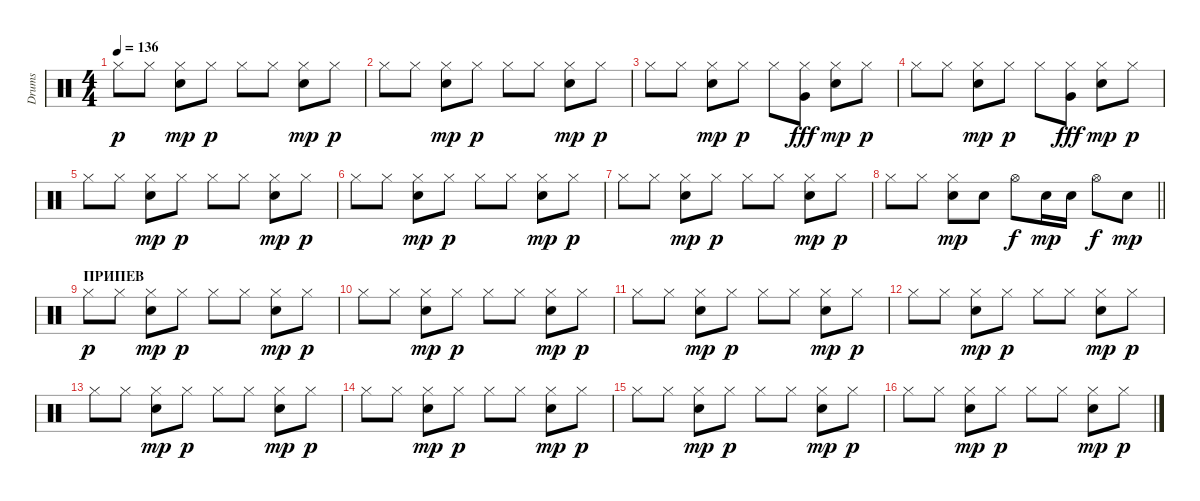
\track ("Drums" "Drums") {instrument percussion}
\staff {score}
\articulation defaults
\ts (4 4)
\tempo 136
\clef neutral
\ks c "Hi-Hat (closed)".8{dy p} "Hi-Hat (closed)".8
("Hi-Hat (closed)" "Electric Snare (hit)").8{dy mp} "Hi-Hat (closed)".8{dy p} "Hi-Hat (closed)".8 "Hi-Hat (closed)".8 ("Hi-Hat (closed)" "Electric Snare (hit)").8{dy mp} "Hi-Hat (closed)".8{dy p} |
"Hi-Hat (closed)".8 "Hi-Hat (closed)".8 ("Hi-Hat (closed)" "Electric Snare (hit)").8{dy mp} "Hi-Hat (closed)".8{dy p} "Hi-Hat (closed)".8 "Hi-Hat (closed)".8 ("Hi-Hat (closed)" "Electric Snare (hit)").8{dy mp} "Hi-Hat (closed)".8{dy p} |
"Hi-Hat (closed)".8 "Hi-Hat (closed)".8 ("Hi-Hat (closed)" "Electric Snare (hit)").8{dy mp} "Hi-Hat (closed)".8{dy p} "Hi-Hat (closed)".8 ("Hi-Hat (closed)" "Very Low Tom (hit)").8{dy fff} ("Hi-Hat (closed)" "Electric Snare (hit)").8{dy mp} "Hi-Hat (closed)".8{dy p} |
"Hi-Hat (closed)".8 "Hi-Hat (closed)".8 ("Hi-Hat (closed)" "Electric Snare (hit)").8{dy mp} "Hi-Hat (closed)".8{dy p} "Hi-Hat (closed)".8 ("Hi-Hat (closed)" "Very Low Tom (hit)").8{dy fff} ("Hi-Hat (closed)" "Electric Snare (hit)").8{dy mp} "Hi-Hat (closed)".8{dy p} |
"Hi-Hat (closed)".8 "Hi-Hat (closed)".8 ("Hi-Hat (closed)" "Electric Snare (hit)").8{dy mp} "Hi-Hat (closed)".8{dy p} "Hi-Hat (closed)".8 "Hi-Hat (closed)".8 ("Hi-Hat (closed)" "Electric Snare (hit)").8{dy mp} "Hi-Hat (closed)".8{dy p} |
"Hi-Hat (closed)".8 "Hi-Hat (closed)".8 ("Hi-Hat (closed)" "Electric Snare (hit)").8{dy mp} "Hi-Hat (closed)".8{dy p} "Hi-Hat (closed)".8 "Hi-Hat (closed)".8 ("Hi-Hat (closed)" "Electric Snare (hit)").8{dy mp} "Hi-Hat (closed)".8{dy p} |
"Hi-Hat (closed)".8 "Hi-Hat (closed)".8 ("Hi-Hat (closed)" "Electric Snare (hit)").8{dy mp} "Hi-Hat (closed)".8{dy p} "Hi-Hat (closed)".8 "Hi-Hat (closed)".8 ("Hi-Hat (closed)" "Electric Snare (hit)").8{dy mp} "Hi-Hat (closed)".8{dy p} |
\barLineRight lightlight "Hi-Hat (closed)".8 "Hi-Hat (closed)".8
("Hi-Hat (closed)" "Electric Snare (hit)").8{dy mp} "Electric Snare (hit)".8 "Hi-Hat (open)".8{dy f} "Electric Snare (hit)".16{dy mp} "Electric Snare (hit)".16 "Hi-Hat (open)".8{dy f} "Electric Snare (hit)".8{dy mp} |
\section ("" "ПРИПЕВ")
"Hi-Hat (closed)".8{dy p} "Hi-Hat (closed)".8 ("Hi-Hat (closed)" "Electric Snare (hit)").8{dy mp} "Hi-Hat (closed)".8{dy p} "Hi-Hat (closed)".8 "Hi-Hat (closed)".8 ("Hi-Hat (closed)" "Electric Snare (hit)").8{dy mp} "Hi-Hat (closed)".8{dy p} |
"Hi-Hat (closed)".8 "Hi-Hat (closed)".8 ("Hi-Hat (closed)" "Electric Snare (hit)").8{dy mp} "Hi-Hat (closed)".8{dy p} "Hi-Hat (closed)".8 "Hi-Hat (closed)".8 ("Hi-Hat (closed)" "Electric Snare (hit)").8{dy mp} "Hi-Hat (closed)".8{dy p} |
"Hi-Hat (closed)".8 "Hi-Hat (closed)".8 ("Hi-Hat (closed)" "Electric Snare (hit)").8{dy mp} "Hi-Hat (closed)".8{dy p} "Hi-Hat (closed)".8 "Hi-Hat (closed)".8 ("Hi-Hat (closed)" "Electric Snare (hit)").8{dy mp} "Hi-Hat (closed)".8{dy p} |
"Hi-Hat (closed)".8 "Hi-Hat (closed)".8 ("Hi-Hat (closed)" "Electric Snare (hit)").8{dy mp} "Hi-Hat (closed)".8{dy p} "Hi-Hat (closed)".8 "Hi-Hat (closed)".8 ("Hi-Hat (closed)" "Electric Snare (hit)").8{dy mp} "Hi-Hat (closed)".8{dy p} |
"Hi-Hat (closed)".8 "Hi-Hat (closed)".8 ("Hi-Hat (closed)" "Electric Snare (hit)").8{dy mp} "Hi-Hat (closed)".8{dy p} "Hi-Hat (closed)".8 "Hi-Hat (closed)".8 ("Hi-Hat (closed)" "Electric Snare (hit)").8{dy mp} "Hi-Hat (closed)".8{dy p} |
"Hi-Hat (closed)".8 "Hi-Hat (closed)".8 ("Hi-Hat (closed)" "Electric Snare (hit)").8{dy mp} "Hi-Hat (closed)".8{dy p} "Hi-Hat (closed)".8 "Hi-Hat (closed)".8 ("Hi-Hat (closed)" "Electric Snare (hit)").8{dy mp} "Hi-Hat (closed)".8{dy p} |
"Hi-Hat (closed)".8 "Hi-Hat (closed)".8 ("Hi-Hat (closed)" "Electric Snare (hit)").8{dy mp} "Hi-Hat (closed)".8{dy p} "Hi-Hat (closed)".8 "Hi-Hat (closed)".8 ("Hi-Hat (closed)" "Electric Snare (hit)").8{dy mp} "Hi-Hat (closed)".8{dy p} |
"Hi-Hat (closed)".8 "Hi-Hat (closed)".8 ("Hi-Hat (closed)" "Electric Snare (hit)").8{dy mp} "Hi-Hat (closed)".8{dy p} "Hi-Hat (closed)".8 "Hi-Hat (closed)".8 ("Hi-Hat (closed)" "Electric Snare (hit)").8{dy mp} "Hi-Hat (closed)".8{dy p}
